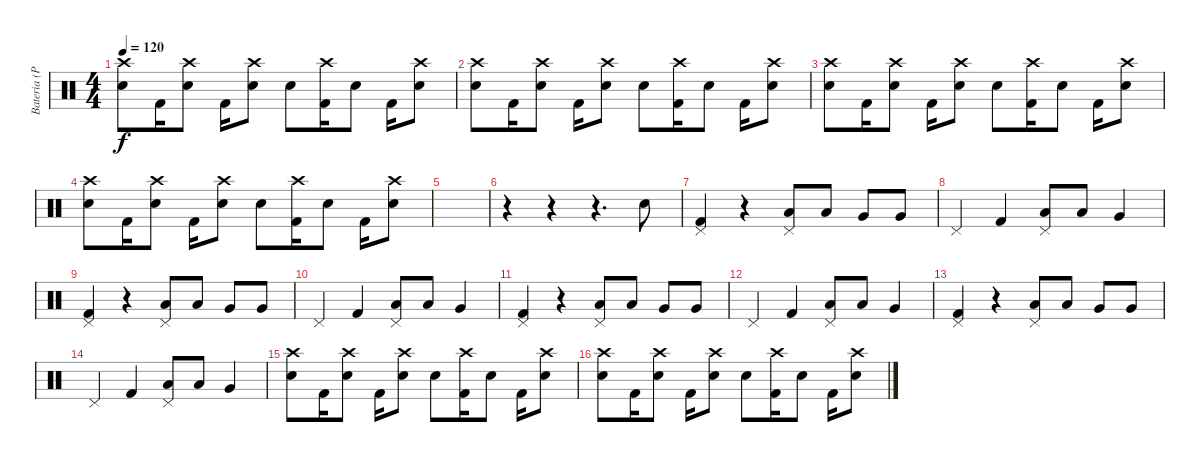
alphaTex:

\track ("Bateria (Pelado)" "Bateria (P") {instrument percussion}
\staff {score}
\articulation defaults
\ts (4 4)
\tempo 120
\clef neutral
\ks c
("Crash high (hit)" "Electric Snare (hit)").8{dy f} "Kick (hit) 2".16 ("Crash high (hit)" "Electric Snare (hit)").8 "Kick (hit) 2".16 ("Crash high (hit)" "Electric Snare (hit)").8 "Electric Snare (hit)".8 ("Crash high (hit)" "Kick (hit) 2").16 "Electric Snare (hit)".8 "Kick (hit) 2".16 ("Crash high (hit)" "Electric Snare (hit)").8 |
("Crash high (hit)" "Electric Snare (hit)").8 "Kick (hit) 2".16 ("Crash high (hit)" "Electric Snare (hit)").8 "Kick (hit) 2".16 ("Crash high (hit)" "Electric Snare (hit)").8 "Electric Snare (hit)".8 ("Crash high (hit)" "Kick (hit) 2").16 "Electric Snare (hit)".8 "Kick (hit) 2".16 ("Crash high (hit)" "Electric Snare (hit)").8 |
("Crash high (hit)" "Electric Snare (hit)").8 "Kick (hit) 2".16 ("Crash high (hit)" "Electric Snare (hit)").8 "Kick (hit) 2".16 ("Crash high (hit)" "Electric Snare (hit)").8 "Electric Snare (hit)".8 ("Crash high (hit)" "Kick (hit) 2").16 "Electric Snare (hit)".8 "Kick (hit) 2".16 ("Crash high (hit)" "Electric Snare (hit)").8 |
("Crash high (hit)" "Electric Snare (hit)").8 "Kick (hit) 2".16 ("Crash high (hit)" "Electric Snare (hit)").8 "Kick (hit) 2".16 ("Crash high (hit)" "Electric Snare (hit)").8 "Electric Snare (hit)".8 ("Crash high (hit)" "Kick (hit) 2").16 "Electric Snare (hit)".8 "Kick (hit) 2".16 ("Crash high (hit)" "Electric Snare (hit)").8 |
|
r.4 r.4 r.4{d} "Electric Snare (hit)".8 |
("Pedal Hi-Hat (hit)" "Kick (hit) 2").4 r.4 ("Pedal Hi-Hat (hit)" "Low Tom (hit)").8 "Low Tom (hit)".8 "Very Low Tom (hit)".8 "Very Low Tom (hit)".8 |
"Pedal Hi-Hat (hit)".4 "Kick (hit) 2".4 ("Pedal Hi-Hat (hit)" "Low Tom (hit)").8 "Low Tom (hit)".8 "Very Low Tom (hit)".4 |
("Pedal Hi-Hat (hit)" "Kick (hit) 2").4 r.4 ("Pedal Hi-Hat (hit)" "Low Tom (hit)").8 "Low Tom (hit)".8 "Very Low Tom (hit)".8 "Very Low Tom (hit)".8 |
"Pedal Hi-Hat (hit)".4 "Kick (hit) 2".4 ("Pedal Hi-Hat (hit)" "Low Tom (hit)").8 "Low Tom (hit)".8 "Very Low Tom (hit)".4 |
("Pedal Hi-Hat (hit)" "Kick (hit) 2").4 r.4 ("Pedal Hi-Hat (hit)" "Low Tom (hit)").8 "Low Tom (hit)".8 "Very Low Tom (hit)".8 "Very Low Tom (hit)".8 |
"Pedal Hi-Hat (hit)".4 "Kick (hit) 2".4 ("Pedal Hi-Hat (hit)" "Low Tom (hit)").8 "Low Tom (hit)".8 "Very Low Tom (hit)".4 |
("Pedal Hi-Hat (hit)" "Kick (hit) 2").4 r.4 ("Pedal Hi-Hat (hit)" "Low Tom (hit)").8 "Low Tom (hit)".8 "Very Low Tom (hit)".8 "Very Low Tom (hit)".8 |
"Pedal Hi-Hat (hit)".4 "Kick (hit) 2".4 ("Pedal Hi-Hat (hit)" "Low Tom (hit)").8 "Low Tom (hit)".8 "Very Low Tom (hit)".4 |
("Crash high (hit)" "Electric Snare (hit)").8 "Kick (hit) 2".16 ("Crash high (hit)" "Electric Snare (hit)").8 "Kick (hit) 2".16 ("Crash high (hit)" "Electric Snare (hit)").8 "Electric Snare (hit)".8 ("Crash high (hit)" "Kick (hit) 2").16 "Electric Snare (hit)".8 "Kick (hit) 2".16 ("Crash high (hit)" "Electric Snare (hit)").8 |
("Crash high (hit)" "Electric Snare (hit)").8 "Kick (hit) 2".16 ("Crash high (hit)" "Electric Snare (hit)").8 "Kick (hit) 2".16 ("Crash high (hit)" "Electric Snare (hit)").8 "Electric Snare (hit)".8 ("Crash high (hit)" "Kick (hit) 2").16 "Electric Snare (hit)".8 "Kick (hit) 2".16 ("Crash high (hit)" "Electric Snare (hit)").8
